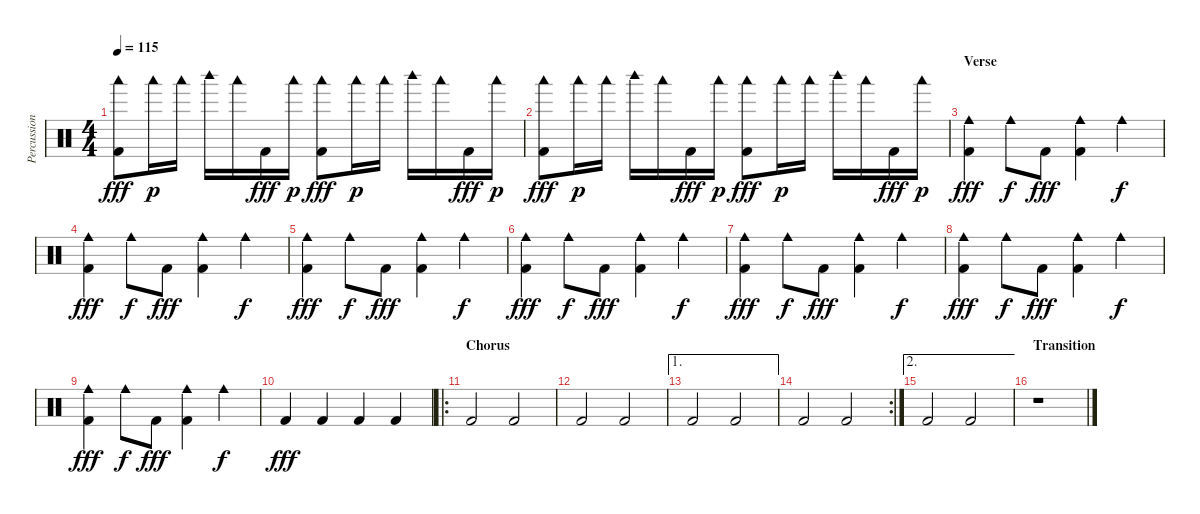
\track ("Percussion/Booster" "Percussion") {instrument percussion}
\staff {score}
\articulation defaults
\ts (4 4)
\tempo 115
\clef neutral
\ks c
("Woodblock low (hit)" "Kick (hit) 2").8{dy fff} "Woodblock low (hit)".16{dy p} "Woodblock low (hit)".16 "Woodblock high (hit)".16 "Woodblock low (hit)".16 "Kick (hit) 2".16{dy fff} "Woodblock low (hit)".16{dy p} ("Woodblock low (hit)" "Kick (hit) 2").8{dy fff} "Woodblock low (hit)".16{dy p} "Woodblock low (hit)".16 "Woodblock high (hit)".16 "Woodblock low (hit)".16 "Kick (hit) 2".16{dy fff} "Woodblock low (hit)".16{dy p} |
("Woodblock low (hit)" "Kick (hit) 2").8{dy fff} "Woodblock low (hit)".16{dy p} "Woodblock low (hit)".16 "Woodblock high (hit)".16 "Woodblock low (hit)".16 "Kick (hit) 2".16{dy fff} "Woodblock low (hit)".16{dy p} ("Woodblock low (hit)" "Kick (hit) 2").8{dy fff} "Woodblock low (hit)".16{dy p} "Woodblock low (hit)".16 "Woodblock high (hit)".16 "Woodblock low (hit)".16 "Kick (hit) 2".16{dy fff} "Woodblock low (hit)".16{dy p} |
\section ("" "Verse")
("Cowbell medium (hit)" "Kick (hit) 2").4{dy fff} "Cowbell medium (hit)".8{dy f} "Kick (hit) 2".8{dy fff} ("Cowbell medium (hit)" "Kick (hit) 2").4 "Cowbell medium (hit)".4{dy f} |
("Cowbell medium (hit)" "Kick (hit) 2").4{dy fff} "Cowbell medium (hit)".8{dy f} "Kick (hit) 2".8{dy fff} ("Cowbell medium (hit)" "Kick (hit) 2").4 "Cowbell medium (hit)".4{dy f} |
("Cowbell medium (hit)" "Kick (hit) 2").4{dy fff} "Cowbell medium (hit)".8{dy f} "Kick (hit) 2".8{dy fff} ("Cowbell medium (hit)" "Kick (hit) 2").4 "Cowbell medium (hit)".4{dy f} |
("Cowbell medium (hit)" "Kick (hit) 2").4{dy fff} "Cowbell medium (hit)".8{dy f} "Kick (hit) 2".8{dy fff} ("Cowbell medium (hit)" "Kick (hit) 2").4 "Cowbell medium (hit)".4{dy f} |
("Cowbell medium (hit)" "Kick (hit) 2").4{dy fff} "Cowbell medium (hit)".8{dy f} "Kick (hit) 2".8{dy fff} ("Cowbell medium (hit)" "Kick (hit) 2").4 "Cowbell medium (hit)".4{dy f} |
("Cowbell medium (hit)" "Kick (hit) 2").4{dy fff} "Cowbell medium (hit)".8{dy f} "Kick (hit) 2".8{dy fff} ("Cowbell medium (hit)" "Kick (hit) 2").4 "Cowbell medium (hit)".4{dy f} |
("Cowbell medium (hit)" "Kick (hit) 2").4{dy fff} "Cowbell medium (hit)".8{dy f} "Kick (hit) 2".8{dy fff} ("Cowbell medium (hit)" "Kick (hit) 2").4 "Cowbell medium (hit)".4{dy f} |
"Kick (hit) 2".4{dy fff} "Kick (hit) 2".4 "Kick (hit) 2".4 "Kick (hit) 2".4 |
\ro
\section ("" "Chorus")
"Kick (hit) 2".2 "Kick (hit) 2".2 |
"Kick (hit) 2".2 "Kick (hit) 2".2 |
\ae 1 "Kick (hit) 2".2 "Kick (hit) 2".2
|
\rc 2 "Kick (hit) 2".2 "Kick (hit) 2".2
|
\ae 2 "Kick (hit) 2".2 "Kick (hit) 2".2
|
\section ("" "Transition")
r.1
